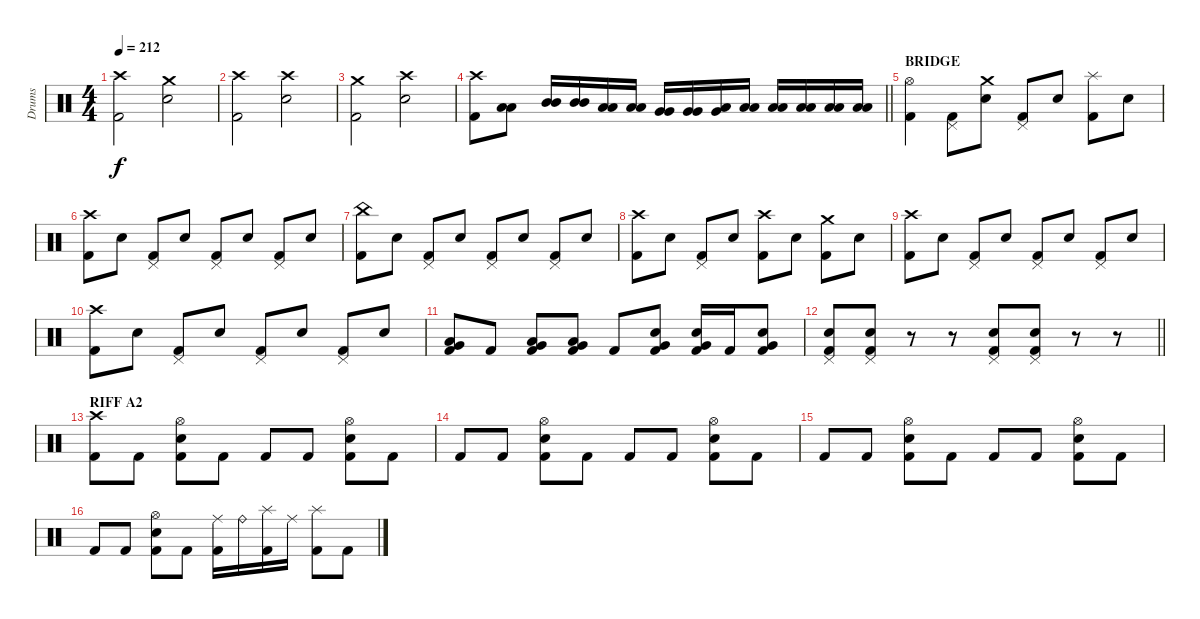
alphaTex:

\track ("Drums" "Drums") {instrument percussion}
\staff {score}
\articulation defaults
\ts (4 4)
\tempo 212
\clef neutral
\ks c
("Crash high (hit)" "Kick (hit) 2").2{dy f} ("Crash medium (hit)" "Snare (hit) 2").2 |
("Crash high (hit)" "Kick (hit) 2").2 ("Crash high (hit)" "Snare (hit) 2").2 |
("Crash medium (hit)" "Kick (hit) 2").2 ("Crash high (hit)" "Snare (hit) 2").2 |
\barLineRight lightlight
("Crash high (hit)" "Kick (hit) 2").8 ("Low Tom (hit)" "Low Tom (hit)").8 ("Mid Tom (hit)" "Mid Tom (hit)").16 ("Mid Tom (hit)" "Mid Tom (hit)").16 ("Low Tom (hit)" "Low Tom (hit)").16 ("Low Tom (hit)" "Low Tom (hit)").16 ("Very Low Tom (hit)" "Very Low Tom (hit)").16 ("Very Low Tom (hit)" "Very Low Tom (hit)").16 ("Very Low Tom (hit)" "Low Floor Tom (hit)").16 ("Low Floor Tom (hit)" "Low Floor Tom (hit)").16 ("Low Floor Tom (hit)" "Low Floor Tom (hit)").16 ("Low Floor Tom (hit)" "Low Floor Tom (hit)").16 ("Low Floor Tom (hit)" "Low Floor Tom (hit)").16 ("Low Floor Tom (hit)" "Low Floor Tom (hit)").16 |
\section ("" "BRIDGE")
("Hi-Hat (open)" "Kick (hit) 2").4 ("Pedal Hi-Hat (hit)" "Kick (hit) 2").8 ("Crash medium (hit)" "Snare (hit) 2").8 ("Pedal Hi-Hat (hit)" "Kick (hit) 2").8 "Snare (hit) 2".8 ("Splash (hit)" "Kick (hit) 2").8 "Snare (hit) 2".8 |
("Crash high (hit)" "Kick (hit) 2").8 "Snare (hit) 2".8 ("Pedal Hi-Hat (hit)" "Kick (hit) 2").8 "Snare (hit) 2".8 ("Pedal Hi-Hat (hit)" "Kick (hit) 2").8 "Snare (hit) 2".8 ("Pedal Hi-Hat (hit)" "Kick (hit) 2").8 "Snare (hit) 2".8 |
("China (hit)" "Kick (hit) 2").8 "Snare (hit) 2".8 ("Pedal Hi-Hat (hit)" "Kick (hit) 2").8 "Snare (hit) 2".8 ("Pedal Hi-Hat (hit)" "Kick (hit) 2").8 "Snare (hit) 2".8 ("Pedal Hi-Hat (hit)" "Kick (hit) 2").8 "Snare (hit) 2".8 |
("Crash high (hit)" "Kick (hit) 2").8 "Snare (hit) 2".8 ("Pedal Hi-Hat (hit)" "Kick (hit) 2").8 "Snare (hit) 2".8 ("Crash high (hit)" "Kick (hit) 2").8 "Snare (hit) 2".8 ("Crash medium (hit)" "Kick (hit) 2").8 "Snare (hit) 2".8 |
("Crash high (hit)" "Kick (hit) 2").8 "Snare (hit) 2".8 ("Pedal Hi-Hat (hit)" "Kick (hit) 2").8 "Snare (hit) 2".8 ("Pedal Hi-Hat (hit)" "Kick (hit) 2").8 "Snare (hit) 2".8 ("Pedal Hi-Hat (hit)" "Kick (hit) 2").8 "Snare (hit) 2".8 |
("Crash high (hit)" "Kick (hit) 2").8 "Snare (hit) 2".8 ("Pedal Hi-Hat (hit)" "Kick (hit) 2").8 "Snare (hit) 2".8 ("Pedal Hi-Hat (hit)" "Kick (hit) 2").8 "Snare (hit) 2".8 ("Pedal Hi-Hat (hit)" "Kick (hit) 2").8 "Snare (hit) 2".8 |
("Very Low Tom (hit)" "Low Tom (hit)" "Kick (hit) 2").8 "Kick (hit) 2".8 ("Very Low Tom (hit)" "Low Tom (hit)" "Kick (hit) 2").8 ("Very Low Tom (hit)" "Low Tom (hit)" "Kick (hit) 2").8 "Kick (hit) 2".8 ("Very Low Tom (hit)" "Snare (hit) 2" "Kick (hit) 2").8 ("Very Low Tom (hit)" "Snare (hit) 2" "Kick (hit) 2").16 "Kick (hit) 2".16 ("Very Low Tom (hit)" "Snare (hit) 2" "Kick (hit) 2").8 |
\barLineRight lightlight
("Pedal Hi-Hat (hit)" "Snare (hit) 2" "Kick (hit) 2").8 ("Pedal Hi-Hat (hit)" "Snare (hit) 2" "Kick (hit) 2").8 r.8 r.8 ("Pedal Hi-Hat (hit)" "Snare (hit) 2" "Kick (hit) 2").8 ("Pedal Hi-Hat (hit)" "Snare (hit) 2" "Kick (hit) 2").8 r.8 r.8 |
\section ("" "RIFF A2")
("Crash high (hit)" "Kick (hit) 2").8 "Kick (hit) 2".8 ("Hi-Hat (open)" "Snare (hit) 2" "Kick (hit) 2").8 "Kick (hit) 2".8 "Kick (hit) 2".8 "Kick (hit) 2".8 ("Hi-Hat (open)" "Snare (hit) 2" "Kick (hit) 2").8 "Kick (hit) 2".8 |
"Kick (hit) 2".8 "Kick (hit) 2".8 ("Hi-Hat (open)" "Snare (hit) 2" "Kick (hit) 2").8 "Kick (hit) 2".8 "Kick (hit) 2".8 "Kick (hit) 2".8 ("Hi-Hat (open)" "Snare (hit) 2" "Kick (hit) 2").8 "Kick (hit) 2".8 |
"Kick (hit) 2".8 "Kick (hit) 2".8 ("Hi-Hat (open)" "Snare (hit) 2" "Kick (hit) 2").8 "Kick (hit) 2".8 "Kick (hit) 2".8 "Kick (hit) 2".8 ("Hi-Hat (open)" "Snare (hit) 2" "Kick (hit) 2").8 "Kick (hit) 2".8 |
"Kick (hit) 2".8 "Kick (hit) 2".8 ("Hi-Hat (open)" "Snare (hit) 2" "Kick (hit) 2").8 "Kick (hit) 2".8 ("Ride (middle)" "Kick (hit) 2").16 "Ride (bell)".16 ("Splash (hit)" "Kick (hit) 2").16 "Ride (middle)".16 ("Splash (hit)" "Kick (hit) 2").8 "Kick (hit) 2".8
